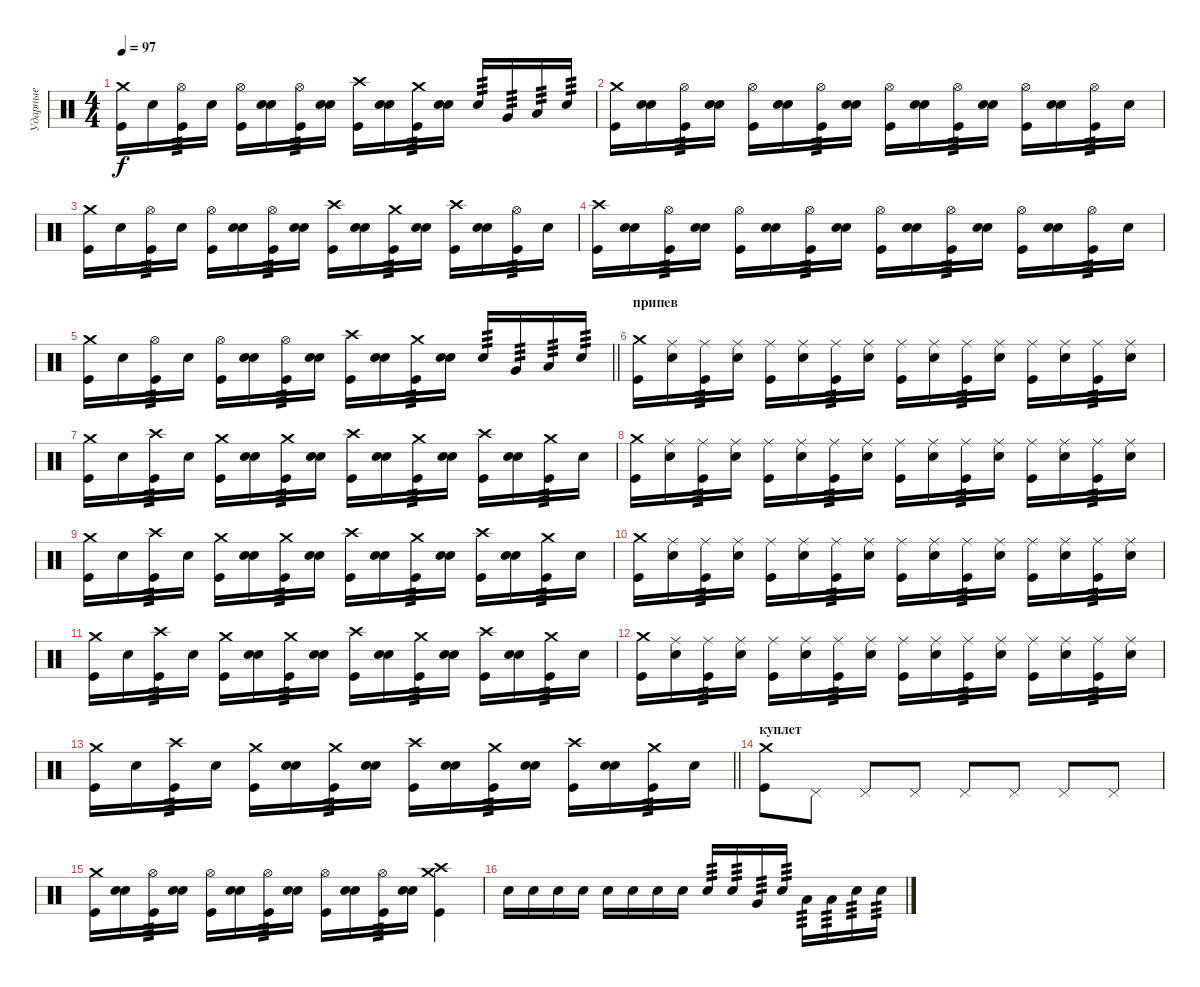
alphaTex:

\track ("Ударные" "Ударные") {instrument percussion}
\staff {score}
\articulation defaults
\ts (4 4)
\tempo 97
\clef neutral
\ks c
("Kick (hit)" "Crash medium (hit)").16{dy f} "Electric Snare (hit)".16 ("Kick (hit)" "Hi-Hat (open)").16{tp 3} "Electric Snare (hit)".16 ("Kick (hit)" "Hi-Hat (open)").16 ("Electric Snare (hit)" "Snare (hit)").16 ("Kick (hit)" "Hi-Hat (open)").16{tp 3} ("Electric Snare (hit)" "Snare (hit)").16 ("Kick (hit)" "Crash high (hit)").16 ("Electric Snare (hit)" "Snare (hit)").16 ("Kick (hit)" "Crash medium (hit)").16{tp 3} ("Electric Snare (hit)" "Snare (hit)").16 "Electric Snare (hit)".16{tp 3} "Very Low Tom (hit)".16{tp 3} "Low Tom (hit)".16{tp 3} "Electric Snare (hit)".16{tp 3} |
("Kick (hit)" "Crash medium (hit)").16 ("Electric Snare (hit)" "Snare (hit)").16 ("Kick (hit)" "Hi-Hat (open)").16{tp 3} ("Electric Snare (hit)" "Snare (hit)").16 ("Kick (hit)" "Hi-Hat (open)").16 ("Electric Snare (hit)" "Snare (hit)").16 ("Kick (hit)" "Hi-Hat (open)").16{tp 3} ("Electric Snare (hit)" "Snare (hit)").16 ("Kick (hit)" "Hi-Hat (open)").16 ("Electric Snare (hit)" "Snare (hit)").16 ("Kick (hit)" "Hi-Hat (open)").16{tp 3} ("Electric Snare (hit)" "Snare (hit)").16 ("Kick (hit)" "Hi-Hat (open)").16 ("Electric Snare (hit)" "Snare (hit)").16 ("Kick (hit)" "Hi-Hat (open)").16{tp 3} "Electric Snare (hit)".16 |
("Kick (hit)" "Crash medium (hit)").16 "Electric Snare (hit)".16 ("Kick (hit)" "Hi-Hat (open)").16{tp 3} "Electric Snare (hit)".16 ("Kick (hit)" "Hi-Hat (open)").16 ("Electric Snare (hit)" "Snare (hit)").16 ("Kick (hit)" "Hi-Hat (open)").16{tp 3} ("Electric Snare (hit)" "Snare (hit)").16 ("Kick (hit)" "Crash high (hit)").16 ("Electric Snare (hit)" "Snare (hit)").16 ("Kick (hit)" "Crash medium (hit)").16{tp 3} ("Electric Snare (hit)" "Snare (hit)").16 ("Kick (hit)" "Crash high (hit)").16 ("Electric Snare (hit)" "Snare (hit)").16 ("Kick (hit)" "Hi-Hat (open)").16{tp 3} "Electric Snare (hit)".16 |
("Kick (hit)" "Crash high (hit)").16 ("Electric Snare (hit)" "Snare (hit)").16 ("Kick (hit)" "Hi-Hat (open)").16{tp 3} ("Electric Snare (hit)" "Snare (hit)").16 ("Kick (hit)" "Hi-Hat (open)").16 ("Electric Snare (hit)" "Snare (hit)").16 ("Kick (hit)" "Hi-Hat (open)").16{tp 3} ("Electric Snare (hit)" "Snare (hit)").16 ("Kick (hit)" "Hi-Hat (open)").16 ("Electric Snare (hit)" "Snare (hit)").16 ("Kick (hit)" "Hi-Hat (open)").16{tp 3} ("Electric Snare (hit)" "Snare (hit)").16 ("Kick (hit)" "Hi-Hat (open)").16 ("Electric Snare (hit)" "Snare (hit)").16 ("Kick (hit)" "Hi-Hat (open)").16{tp 3} "Electric Snare (hit)".16 |
\barLineRight lightlight
("Kick (hit)" "Crash medium (hit)").16 "Electric Snare (hit)".16 ("Kick (hit)" "Hi-Hat (open)").16{tp 3} "Electric Snare (hit)".16 ("Kick (hit)" "Hi-Hat (open)").16 ("Electric Snare (hit)" "Snare (hit)").16 ("Kick (hit)" "Hi-Hat (open)").16{tp 3} ("Electric Snare (hit)" "Snare (hit)").16 ("Kick (hit)" "Crash high (hit)").16 ("Electric Snare (hit)" "Snare (hit)").16 ("Kick (hit)" "Crash medium (hit)").16{tp 3} ("Electric Snare (hit)" "Snare (hit)").16 "Electric Snare (hit)".16{tp 3} "Very Low Tom (hit)".16{tp 3} "Low Tom (hit)".16{tp 3} "Electric Snare (hit)".16{tp 3} |
\section ("" "припев")
("Kick (hit)" "Crash medium (hit)").16 ("Electric Snare (hit)" "Ride (middle)").16 ("Kick (hit)" "Ride (middle)").16{tp 3} ("Electric Snare (hit)" "Ride (middle)").16 ("Kick (hit)" "Ride (middle)").16 ("Electric Snare (hit)" "Ride (middle)").16 ("Kick (hit)" "Ride (middle)").16{tp 3} ("Electric Snare (hit)" "Ride (middle)").16 ("Kick (hit)" "Ride (middle)").16 ("Electric Snare (hit)" "Ride (middle)").16 ("Kick (hit)" "Ride (middle)").16{tp 3} ("Electric Snare (hit)" "Ride (middle)").16 ("Kick (hit)" "Ride (middle)").16 ("Electric Snare (hit)" "Ride (middle)").16 ("Kick (hit)" "Ride (middle)").16{tp 3} ("Electric Snare (hit)" "Ride (middle)").16 |
("Kick (hit)" "Crash medium (hit)").16 "Electric Snare (hit)".16 ("Kick (hit)" "Crash high (hit)").16{tp 3} "Electric Snare (hit)".16 ("Kick (hit)" "Crash medium (hit)").16 ("Electric Snare (hit)" "Snare (hit)").16 ("Kick (hit)" "Crash medium (hit)").16{tp 3} ("Electric Snare (hit)" "Snare (hit)").16 ("Kick (hit)" "Crash high (hit)").16 ("Electric Snare (hit)" "Snare (hit)").16 ("Kick (hit)" "Crash medium (hit)").16{tp 3} ("Electric Snare (hit)" "Snare (hit)").16 ("Kick (hit)" "Crash high (hit)").16 ("Electric Snare (hit)" "Snare (hit)").16 ("Kick (hit)" "Crash medium (hit)").16{tp 3} "Electric Snare (hit)".16 |
("Kick (hit)" "Crash medium (hit)").16 ("Electric Snare (hit)" "Ride (middle)").16 ("Kick (hit)" "Ride (middle)").16{tp 3} ("Electric Snare (hit)" "Ride (middle)").16 ("Kick (hit)" "Ride (middle)").16 ("Electric Snare (hit)" "Ride (middle)").16 ("Kick (hit)" "Ride (middle)").16{tp 3} ("Electric Snare (hit)" "Ride (middle)").16 ("Kick (hit)" "Ride (middle)").16 ("Electric Snare (hit)" "Ride (middle)").16 ("Kick (hit)" "Ride (middle)").16{tp 3} ("Electric Snare (hit)" "Ride (middle)").16 ("Kick (hit)" "Ride (middle)").16 ("Electric Snare (hit)" "Ride (middle)").16 ("Kick (hit)" "Ride (middle)").16{tp 3} ("Electric Snare (hit)" "Ride (middle)").16 |
("Kick (hit)" "Crash medium (hit)").16 "Electric Snare (hit)".16 ("Kick (hit)" "Crash high (hit)").16{tp 3} "Electric Snare (hit)".16 ("Kick (hit)" "Crash medium (hit)").16 ("Electric Snare (hit)" "Snare (hit)").16 ("Kick (hit)" "Crash medium (hit)").16{tp 3} ("Electric Snare (hit)" "Snare (hit)").16 ("Kick (hit)" "Crash high (hit)").16 ("Electric Snare (hit)" "Snare (hit)").16 ("Kick (hit)" "Crash medium (hit)").16{tp 3} ("Electric Snare (hit)" "Snare (hit)").16 ("Kick (hit)" "Crash high (hit)").16 ("Electric Snare (hit)" "Snare (hit)").16 ("Kick (hit)" "Crash medium (hit)").16{tp 3} "Electric Snare (hit)".16 |
("Kick (hit)" "Crash medium (hit)").16 ("Electric Snare (hit)" "Ride (middle)").16 ("Kick (hit)" "Ride (middle)").16{tp 3} ("Electric Snare (hit)" "Ride (middle)").16 ("Kick (hit)" "Ride (middle)").16 ("Electric Snare (hit)" "Ride (middle)").16 ("Kick (hit)" "Ride (middle)").16{tp 3} ("Electric Snare (hit)" "Ride (middle)").16 ("Kick (hit)" "Ride (middle)").16 ("Electric Snare (hit)" "Ride (middle)").16 ("Kick (hit)" "Ride (middle)").16{tp 3} ("Electric Snare (hit)" "Ride (middle)").16 ("Kick (hit)" "Ride (middle)").16 ("Electric Snare (hit)" "Ride (middle)").16 ("Kick (hit)" "Ride (middle)").16{tp 3} ("Electric Snare (hit)" "Ride (middle)").16 |
("Kick (hit)" "Crash medium (hit)").16 "Electric Snare (hit)".16 ("Kick (hit)" "Crash high (hit)").16{tp 3} "Electric Snare (hit)".16 ("Kick (hit)" "Crash medium (hit)").16 ("Electric Snare (hit)" "Snare (hit)").16 ("Kick (hit)" "Crash medium (hit)").16{tp 3} ("Electric Snare (hit)" "Snare (hit)").16 ("Kick (hit)" "Crash high (hit)").16 ("Electric Snare (hit)" "Snare (hit)").16 ("Kick (hit)" "Crash medium (hit)").16{tp 3} ("Electric Snare (hit)" "Snare (hit)").16 ("Kick (hit)" "Crash high (hit)").16 ("Electric Snare (hit)" "Snare (hit)").16 ("Kick (hit)" "Crash medium (hit)").16{tp 3} "Electric Snare (hit)".16 |
("Kick (hit)" "Crash medium (hit)").16 ("Electric Snare (hit)" "Ride (middle)").16 ("Kick (hit)" "Ride (middle)").16{tp 3} ("Electric Snare (hit)" "Ride (middle)").16 ("Kick (hit)" "Ride (middle)").16 ("Electric Snare (hit)" "Ride (middle)").16 ("Kick (hit)" "Ride (middle)").16{tp 3} ("Electric Snare (hit)" "Ride (middle)").16 ("Kick (hit)" "Ride (middle)").16 ("Electric Snare (hit)" "Ride (middle)").16 ("Kick (hit)" "Ride (middle)").16{tp 3} ("Electric Snare (hit)" "Ride (middle)").16 ("Kick (hit)" "Ride (middle)").16 ("Electric Snare (hit)" "Ride (middle)").16 ("Kick (hit)" "Ride (middle)").16{tp 3} ("Electric Snare (hit)" "Ride (middle)").16 |
\barLineRight lightlight
("Kick (hit)" "Crash medium (hit)").16 "Electric Snare (hit)".16 ("Kick (hit)" "Crash high (hit)").16{tp 3} "Electric Snare (hit)".16 ("Kick (hit)" "Crash medium (hit)").16 ("Electric Snare (hit)" "Snare (hit)").16 ("Kick (hit)" "Crash medium (hit)").16{tp 3} ("Electric Snare (hit)" "Snare (hit)").16 ("Kick (hit)" "Crash high (hit)").16 ("Electric Snare (hit)" "Snare (hit)").16 ("Kick (hit)" "Crash medium (hit)").16{tp 3} ("Electric Snare (hit)" "Snare (hit)").16 ("Kick (hit)" "Crash high (hit)").16 ("Electric Snare (hit)" "Snare (hit)").16 ("Kick (hit)" "Crash medium (hit)").16{tp 3} "Electric Snare (hit)".16 |
\section ("" "куплет")
("Kick (hit)" "Crash medium (hit)").8 "Pedal Hi-Hat (hit)".8 "Pedal Hi-Hat (hit)".8 "Pedal Hi-Hat (hit)".8 "Pedal Hi-Hat (hit)".8 "Pedal Hi-Hat (hit)".8 "Pedal Hi-Hat (hit)".8 "Pedal Hi-Hat (hit)".8 |
("Kick (hit)" "Crash medium (hit)").16 ("Electric Snare (hit)" "Snare (hit)").16 ("Kick (hit)" "Hi-Hat (open)").16{tp 3} ("Electric Snare (hit)" "Snare (hit)").16 ("Kick (hit)" "Hi-Hat (open)").16 ("Electric Snare (hit)" "Snare (hit)").16 ("Kick (hit)" "Hi-Hat (open)").16{tp 3} ("Electric Snare (hit)" "Snare (hit)").16 ("Kick (hit)" "Hi-Hat (open)").16 ("Electric Snare (hit)" "Snare (hit)").16 ("Kick (hit)" "Hi-Hat (open)").16{tp 3} ("Electric Snare (hit)" "Snare (hit)").16 ("Kick (hit)" "Crash medium (hit)" "Crash high (hit)").4 |
"Snare (hit)".16 "Snare (hit)".16 "Snare (hit)".16 "Snare (hit)".16 "Snare (hit)".16 "Snare (hit)".16 "Snare (hit)".16 "Snare (hit)".16 "Electric Snare (hit)".16{tp 3} "Electric Snare (hit)".16{tp 3} "Very Low Tom (hit)".16{tp 3} "Electric Snare (hit)".16{tp 3} "Low Tom (hit)".16{tp 3} "Low Tom (hit)".16{tp 3} "Electric Snare (hit)".16{tp 3} "Electric Snare (hit)".16{tp 3}
